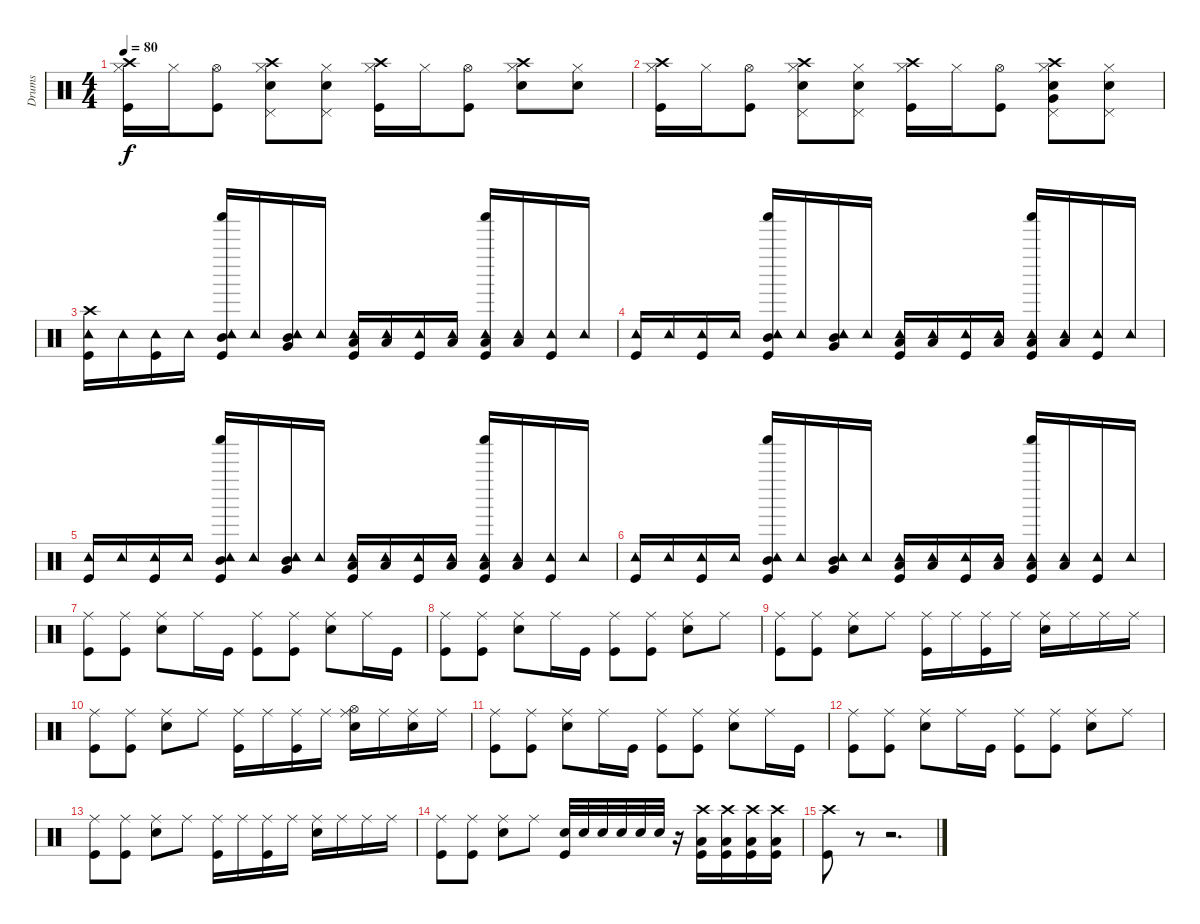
\track ("Drums" "Drums") {instrument percussion}
\staff {score}
\articulation defaults
\ts (4 4)
\tempo 80
\clef neutral
\ks c
("Hi-Hat (closed)" "Crash high (hit)" "Kick (hit)").16{dy f} "Hi-Hat (closed)".16 ("Hi-Hat (open)" "Kick (hit)").8 ("Snare (hit) 2" "Pedal Hi-Hat (hit)" "Hi-Hat (closed)" "Crash high (hit)").8 ("Snare (hit) 2" "Pedal Hi-Hat (hit)" "Hi-Hat (closed)").8 ("Hi-Hat (closed)" "Crash high (hit)" "Kick (hit)").16 "Hi-Hat (closed)".16 ("Hi-Hat (open)" "Kick (hit)").8 ("Snare (hit) 2" "Hi-Hat (closed)" "Crash high (hit)").8 ("Snare (hit) 2" "Hi-Hat (closed)").8 |
("Hi-Hat (closed)" "Crash high (hit)" "Kick (hit)").16 "Hi-Hat (closed)".16 ("Hi-Hat (open)" "Kick (hit)").8 ("Snare (hit) 2" "Pedal Hi-Hat (hit)" "Hi-Hat (closed)" "Crash high (hit)").8 ("Snare (hit) 2" "Pedal Hi-Hat (hit)" "Hi-Hat (closed)").8 ("Hi-Hat (closed)" "Crash high (hit)" "Kick (hit)").16 "Hi-Hat (closed)".16 ("Hi-Hat (open)" "Kick (hit)").8 ("Snare (hit) 2" "Pedal Hi-Hat (hit)" "Very Low Tom (hit)" "Hi-Hat (closed)" "Crash high (hit)").8 ("Snare (hit) 2" "Pedal Hi-Hat (hit)" "Hi-Hat (closed)").8 |
("Tambourine (hit)" "Kick (hit)" "Crash high (hit)").16 "Tambourine (hit)".16 ("Tambourine (hit)" "Kick (hit)").16 "Tambourine (hit)".16 ("Tambourine (hit)" "Shaker (hit)" "Kick (hit)" "Mid Tom (hit)").16 "Tambourine (hit)".16 ("Tambourine (hit)" "Mid Tom (hit)" "Very Low Tom (hit)").16 "Tambourine (hit)".16 ("Tambourine (hit)" "Kick (hit)" "Low Tom (hit)").16 ("Tambourine (hit)" "Low Floor Tom (hit)").16 ("Tambourine (hit)" "Kick (hit)").16 ("Tambourine (hit)" "Low Floor Tom (hit)").16 ("Tambourine (hit)" "Shaker (hit)" "Kick (hit)" "Low Tom (hit)").16 ("Tambourine (hit)" "Low Tom (hit)").16 ("Tambourine (hit)" "Kick (hit)").16 "Tambourine (hit)".16 |
("Tambourine (hit)" "Kick (hit)").16 "Tambourine (hit)".16 ("Tambourine (hit)" "Kick (hit)").16 "Tambourine (hit)".16 ("Tambourine (hit)" "Shaker (hit)" "Kick (hit)" "Mid Tom (hit)").16 "Tambourine (hit)".16 ("Tambourine (hit)" "Mid Tom (hit)" "Very Low Tom (hit)").16 "Tambourine (hit)".16 ("Tambourine (hit)" "Kick (hit)" "Low Tom (hit)").16 ("Tambourine (hit)" "Low Floor Tom (hit)").16 ("Tambourine (hit)" "Kick (hit)").16 ("Tambourine (hit)" "Low Floor Tom (hit)").16 ("Tambourine (hit)" "Shaker (hit)" "Kick (hit)" "Low Tom (hit)").16 ("Tambourine (hit)" "Low Tom (hit)").16 ("Tambourine (hit)" "Kick (hit)").16 "Tambourine (hit)".16 |
("Tambourine (hit)" "Kick (hit)").16 "Tambourine (hit)".16 ("Tambourine (hit)" "Kick (hit)").16 "Tambourine (hit)".16 ("Tambourine (hit)" "Shaker (hit)" "Kick (hit)" "Mid Tom (hit)").16 "Tambourine (hit)".16 ("Tambourine (hit)" "Mid Tom (hit)" "Very Low Tom (hit)").16 "Tambourine (hit)".16 ("Tambourine (hit)" "Kick (hit)" "Low Tom (hit)").16 ("Tambourine (hit)" "Low Floor Tom (hit)").16 ("Tambourine (hit)" "Kick (hit)").16 ("Tambourine (hit)" "Low Floor Tom (hit)").16 ("Tambourine (hit)" "Shaker (hit)" "Kick (hit)" "Low Tom (hit)").16 ("Tambourine (hit)" "Low Tom (hit)").16 ("Tambourine (hit)" "Kick (hit)").16 "Tambourine (hit)".16 |
("Tambourine (hit)" "Kick (hit)").16 "Tambourine (hit)".16 ("Tambourine (hit)" "Kick (hit)").16 "Tambourine (hit)".16 ("Tambourine (hit)" "Shaker (hit)" "Kick (hit)" "Mid Tom (hit)").16 "Tambourine (hit)".16 ("Tambourine (hit)" "Mid Tom (hit)" "Very Low Tom (hit)").16 "Tambourine (hit)".16 ("Tambourine (hit)" "Kick (hit)" "Low Tom (hit)").16 ("Tambourine (hit)" "Low Floor Tom (hit)").16 ("Tambourine (hit)" "Kick (hit)").16 ("Tambourine (hit)" "Low Floor Tom (hit)").16 ("Tambourine (hit)" "Shaker (hit)" "Kick (hit)" "Low Tom (hit)").16 ("Tambourine (hit)" "Low Tom (hit)").16 ("Tambourine (hit)" "Kick (hit)").16 "Tambourine (hit)".16 |
("Kick (hit)" "Ride (middle)").8 ("Ride (middle)" "Kick (hit)").8 ("Ride (middle)" "Snare (hit) 2").8 "Ride (middle)".16 "Kick (hit)".16 ("Ride (middle)" "Kick (hit)").8 ("Ride (middle)" "Kick (hit)").8 ("Ride (middle)" "Snare (hit) 2").8 "Ride (middle)".16 "Kick (hit)".16 |
("Kick (hit)" "Ride (middle)").8 ("Ride (middle)" "Kick (hit)").8 ("Ride (middle)" "Snare (hit) 2").8 "Ride (middle)".16 "Kick (hit)".16 ("Ride (middle)" "Kick (hit)").8 ("Ride (middle)" "Kick (hit)").8 ("Ride (middle)" "Snare (hit) 2").8 "Ride (middle)".8 |
("Kick (hit)" "Ride (middle)").8 ("Ride (middle)" "Kick (hit)").8 ("Ride (middle)" "Snare (hit) 2").8 "Ride (middle)".8 ("Ride (middle)" "Kick (hit)").16 "Ride (middle)".16 ("Ride (middle)" "Kick (hit)").16 "Ride (middle)".16 ("Ride (middle)" "Snare (hit) 2").16 "Ride (middle)".16 "Ride (middle)".16 "Ride (middle)".16 |
("Kick (hit)" "Ride (middle)").8 ("Ride (middle)" "Kick (hit)").8 ("Ride (middle)" "Snare (hit) 2").8 "Ride (middle)".8 ("Ride (middle)" "Kick (hit)").16 "Ride (middle)".16 ("Ride (middle)" "Kick (hit)").16 "Ride (middle)".16 ("Ride (middle)" "Snare (hit) 2" "Hi-Hat (open)").16 "Ride (middle)".16 ("Ride (middle)" "Snare (hit) 2").16 "Ride (middle)".16 |
("Kick (hit)" "Ride (middle)").8 ("Ride (middle)" "Kick (hit)").8 ("Ride (middle)" "Snare (hit) 2").8 "Ride (middle)".16 "Kick (hit)".16 ("Ride (middle)" "Kick (hit)").8 ("Ride (middle)" "Kick (hit)").8 ("Ride (middle)" "Snare (hit) 2").8 "Ride (middle)".16 "Kick (hit)".16 |
("Kick (hit)" "Ride (middle)").8 ("Ride (middle)" "Kick (hit)").8 ("Ride (middle)" "Snare (hit) 2").8 "Ride (middle)".16 "Kick (hit)".16 ("Ride (middle)" "Kick (hit)").8 ("Ride (middle)" "Kick (hit)").8 ("Ride (middle)" "Snare (hit) 2").8 "Ride (middle)".8 |
("Kick (hit)" "Ride (middle)").8 ("Ride (middle)" "Kick (hit)").8 ("Ride (middle)" "Snare (hit) 2").8 "Ride (middle)".8 ("Ride (middle)" "Kick (hit)").16 "Ride (middle)".16 ("Ride (middle)" "Kick (hit)").16 "Ride (middle)".16 ("Ride (middle)" "Snare (hit) 2").16 "Ride (middle)".16 "Ride (middle)".16 "Ride (middle)".16 |
("Kick (hit)" "Ride (middle)").8 ("Ride (middle)" "Kick (hit)").8 ("Ride (middle)" "Snare (hit) 2").8 "Ride (middle)".8 ("Kick (hit)" "Snare (hit) 2").32 "Snare (hit) 2".32 "Snare (hit) 2".32 "Snare (hit) 2".32 "Snare (hit) 2".32 "Snare (hit) 2".32 r.16 ("Low Tom (hit)" "Crash high (hit)" "Kick (hit)").16 ("Low Tom (hit)" "Crash high (hit)" "Kick (hit)").16 ("Low Tom (hit)" "Crash high (hit)" "Kick (hit)").16 ("Low Tom (hit)" "Crash high (hit)" "Kick (hit)").16 |
("Crash high (hit)" "Kick (hit)").8 r.8 r.2{d}
